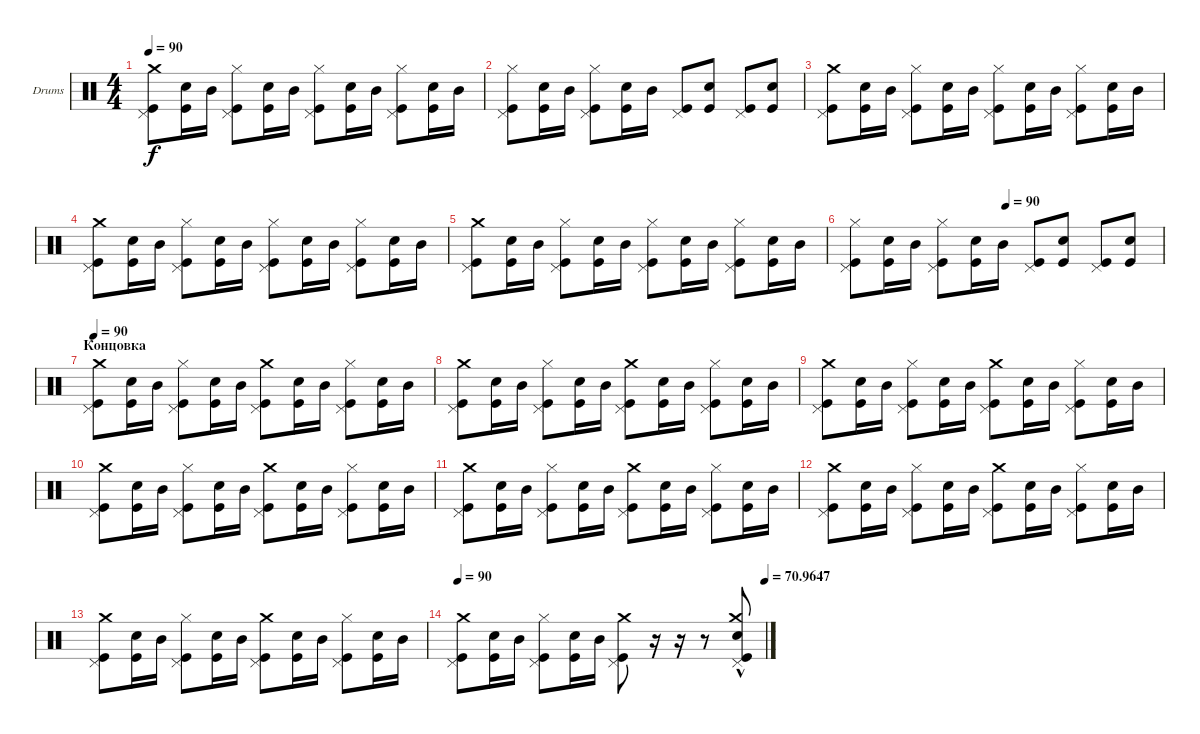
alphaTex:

\defaultSystemsLayout 4
\bracketExtendMode groupsimilarinstruments
\firstSystemTrackNameOrientation horizontal
\otherSystemsTrackNameOrientation horizontal
\track ("Drums" "Drums") {instrument percussion}
\staff {score}
\articulation defaults
\ts (4 4)
\tempo 90
\clef neutral
\ks c
("Kick (hit)" "Pedal Hi-Hat (hit)" "Crash medium (hit)").8{dy f} ("Snare (hit) 2" "Kick (hit)").16 "Mid Tom (hit)".16 ("Pedal Hi-Hat (hit)" "Hi-Hat (closed)" "Kick (hit)").8 ("Snare (hit) 2" "Kick (hit)").16 "Mid Tom (hit)".16 ("Kick (hit)" "Pedal Hi-Hat (hit)" "Hi-Hat (closed)").8 ("Snare (hit) 2" "Kick (hit)").16 "Mid Tom (hit)".16 ("Kick (hit)" "Pedal Hi-Hat (hit)" "Hi-Hat (closed)").8 ("Snare (hit) 2" "Kick (hit)").16 "Mid Tom (hit)".16 |
("Kick (hit)" "Pedal Hi-Hat (hit)" "Hi-Hat (closed)").8 ("Snare (hit) 2" "Kick (hit)").16 "Mid Tom (hit)".16 ("Pedal Hi-Hat (hit)" "Hi-Hat (closed)" "Kick (hit)").8 ("Snare (hit) 2" "Kick (hit)").16 "Mid Tom (hit)".16 ("Kick (hit)" "Pedal Hi-Hat (hit)").8 ("Snare (hit) 2" "Kick (hit)").8 ("Kick (hit)" "Pedal Hi-Hat (hit)").8 ("Snare (hit) 2" "Kick (hit)").8 |
("Kick (hit)" "Pedal Hi-Hat (hit)" "Crash medium (hit)").8 ("Snare (hit) 2" "Kick (hit)").16 "Mid Tom (hit)".16 ("Pedal Hi-Hat (hit)" "Hi-Hat (closed)" "Kick (hit)").8 ("Snare (hit) 2" "Kick (hit)").16 "Mid Tom (hit)".16 ("Kick (hit)" "Pedal Hi-Hat (hit)" "Hi-Hat (closed)").8 ("Snare (hit) 2" "Kick (hit)").16 "Mid Tom (hit)".16 ("Kick (hit)" "Pedal Hi-Hat (hit)" "Hi-Hat (closed)").8 ("Snare (hit) 2" "Kick (hit)").16 "Mid Tom (hit)".16 |
("Kick (hit)" "Pedal Hi-Hat (hit)" "Crash medium (hit)").8 ("Snare (hit) 2" "Kick (hit)").16 "Mid Tom (hit)".16 ("Pedal Hi-Hat (hit)" "Hi-Hat (closed)" "Kick (hit)").8 ("Snare (hit) 2" "Kick (hit)").16 "Mid Tom (hit)".16 ("Kick (hit)" "Pedal Hi-Hat (hit)" "Hi-Hat (closed)").8 ("Snare (hit) 2" "Kick (hit)").16 "Mid Tom (hit)".16 ("Kick (hit)" "Pedal Hi-Hat (hit)" "Hi-Hat (closed)").8 ("Snare (hit) 2" "Kick (hit)").16 "Mid Tom (hit)".16 |
("Kick (hit)" "Pedal Hi-Hat (hit)" "Crash medium (hit)").8 ("Snare (hit) 2" "Kick (hit)").16 "Mid Tom (hit)".16 ("Pedal Hi-Hat (hit)" "Hi-Hat (closed)" "Kick (hit)").8 ("Snare (hit) 2" "Kick (hit)").16 "Mid Tom (hit)".16 ("Kick (hit)" "Pedal Hi-Hat (hit)" "Hi-Hat (closed)").8 ("Snare (hit) 2" "Kick (hit)").16 "Mid Tom (hit)".16 ("Kick (hit)" "Pedal Hi-Hat (hit)" "Hi-Hat (closed)").8 ("Snare (hit) 2" "Kick (hit)").16 "Mid Tom (hit)".16 |
\tempo (90 0.5)
("Kick (hit)" "Pedal Hi-Hat (hit)" "Hi-Hat (closed)").8 ("Snare (hit) 2" "Kick (hit)").16 "Mid Tom (hit)".16 ("Pedal Hi-Hat (hit)" "Hi-Hat (closed)" "Kick (hit)").8 ("Snare (hit) 2" "Kick (hit)").16 "Mid Tom (hit)".16 ("Kick (hit)" "Pedal Hi-Hat (hit)").8 ("Snare (hit) 2" "Kick (hit)").8 ("Kick (hit)" "Pedal Hi-Hat (hit)").8 ("Snare (hit) 2" "Kick (hit)").8 |
\section ("" "Концовка")
\tempo 90
("Kick (hit)" "Pedal Hi-Hat (hit)" "Crash medium (hit)").8 ("Snare (hit) 2" "Kick (hit)").16 "Mid Tom (hit)".16 ("Pedal Hi-Hat (hit)" "Hi-Hat (closed)" "Kick (hit)").8 ("Snare (hit) 2" "Kick (hit)").16 "Mid Tom (hit)".16 ("Kick (hit)" "Pedal Hi-Hat (hit)" "Crash medium (hit)").8 ("Snare (hit) 2" "Kick (hit)").16 "Mid Tom (hit)".16 ("Kick (hit)" "Pedal Hi-Hat (hit)" "Hi-Hat (closed)").8 ("Snare (hit) 2" "Kick (hit)").16 "Mid Tom (hit)".16 |
("Kick (hit)" "Pedal Hi-Hat (hit)" "Crash medium (hit)").8 ("Snare (hit) 2" "Kick (hit)").16 "Mid Tom (hit)".16 ("Pedal Hi-Hat (hit)" "Hi-Hat (closed)" "Kick (hit)").8 ("Snare (hit) 2" "Kick (hit)").16 "Mid Tom (hit)".16 ("Kick (hit)" "Pedal Hi-Hat (hit)" "Crash medium (hit)").8 ("Snare (hit) 2" "Kick (hit)").16 "Mid Tom (hit)".16 ("Kick (hit)" "Pedal Hi-Hat (hit)" "Hi-Hat (closed)").8 ("Snare (hit) 2" "Kick (hit)").16 "Mid Tom (hit)".16 |
("Kick (hit)" "Pedal Hi-Hat (hit)" "Crash medium (hit)").8 ("Snare (hit) 2" "Kick (hit)").16 "Mid Tom (hit)".16 ("Pedal Hi-Hat (hit)" "Hi-Hat (closed)" "Kick (hit)").8 ("Snare (hit) 2" "Kick (hit)").16 "Mid Tom (hit)".16 ("Kick (hit)" "Pedal Hi-Hat (hit)" "Crash medium (hit)").8 ("Snare (hit) 2" "Kick (hit)").16 "Mid Tom (hit)".16 ("Kick (hit)" "Pedal Hi-Hat (hit)" "Hi-Hat (closed)").8 ("Snare (hit) 2" "Kick (hit)").16 "Mid Tom (hit)".16 |
("Kick (hit)" "Pedal Hi-Hat (hit)" "Crash medium (hit)").8 ("Snare (hit) 2" "Kick (hit)").16 "Mid Tom (hit)".16 ("Pedal Hi-Hat (hit)" "Hi-Hat (closed)" "Kick (hit)").8 ("Snare (hit) 2" "Kick (hit)").16 "Mid Tom (hit)".16 ("Kick (hit)" "Pedal Hi-Hat (hit)" "Crash medium (hit)").8 ("Snare (hit) 2" "Kick (hit)").16 "Mid Tom (hit)".16 ("Kick (hit)" "Pedal Hi-Hat (hit)" "Hi-Hat (closed)").8 ("Snare (hit) 2" "Kick (hit)").16 "Mid Tom (hit)".16 |
("Kick (hit)" "Pedal Hi-Hat (hit)" "Crash medium (hit)").8 ("Snare (hit) 2" "Kick (hit)").16 "Mid Tom (hit)".16 ("Pedal Hi-Hat (hit)" "Hi-Hat (closed)" "Kick (hit)").8 ("Snare (hit) 2" "Kick (hit)").16 "Mid Tom (hit)".16 ("Kick (hit)" "Pedal Hi-Hat (hit)" "Crash medium (hit)").8 ("Snare (hit) 2" "Kick (hit)").16 "Mid Tom (hit)".16 ("Kick (hit)" "Pedal Hi-Hat (hit)" "Hi-Hat (closed)").8 ("Snare (hit) 2" "Kick (hit)").16 "Mid Tom (hit)".16 |
("Kick (hit)" "Pedal Hi-Hat (hit)" "Crash medium (hit)").8 ("Snare (hit) 2" "Kick (hit)").16 "Mid Tom (hit)".16 ("Pedal Hi-Hat (hit)" "Hi-Hat (closed)" "Kick (hit)").8 ("Snare (hit) 2" "Kick (hit)").16 "Mid Tom (hit)".16 ("Kick (hit)" "Pedal Hi-Hat (hit)" "Crash medium (hit)").8 ("Snare (hit) 2" "Kick (hit)").16 "Mid Tom (hit)".16 ("Kick (hit)" "Pedal Hi-Hat (hit)" "Hi-Hat (closed)").8 ("Snare (hit) 2" "Kick (hit)").16 "Mid Tom (hit)".16 |
("Kick (hit)" "Pedal Hi-Hat (hit)" "Crash medium (hit)").8 ("Snare (hit) 2" "Kick (hit)").16 "Mid Tom (hit)".16 ("Pedal Hi-Hat (hit)" "Hi-Hat (closed)" "Kick (hit)").8 ("Snare (hit) 2" "Kick (hit)").16 "Mid Tom (hit)".16 ("Kick (hit)" "Pedal Hi-Hat (hit)" "Crash medium (hit)").8 ("Snare (hit) 2" "Kick (hit)").16 "Mid Tom (hit)".16 ("Kick (hit)" "Pedal Hi-Hat (hit)" "Hi-Hat (closed)").8 ("Snare (hit) 2" "Kick (hit)").16 "Mid Tom (hit)".16 |
\tempo 90
\tempo (70.9647 1)
("Kick (hit)" "Pedal Hi-Hat (hit)" "Crash medium (hit)").8 ("Snare (hit) 2" "Kick (hit)").16 "Mid Tom (hit)".16 ("Pedal Hi-Hat (hit)" "Hi-Hat (closed)" "Kick (hit)").8 ("Snare (hit) 2" "Kick (hit)").16 "Mid Tom (hit)".16 ("Kick (hit)" "Pedal Hi-Hat (hit)" "Crash medium (hit)").8 r.16 r.16 r.8 ("Pedal Hi-Hat (hit)"{hac} "Kick (hit)"{hac} "Snare (hit) 2"{hac} "Crash medium (hit)"{hac}).8
